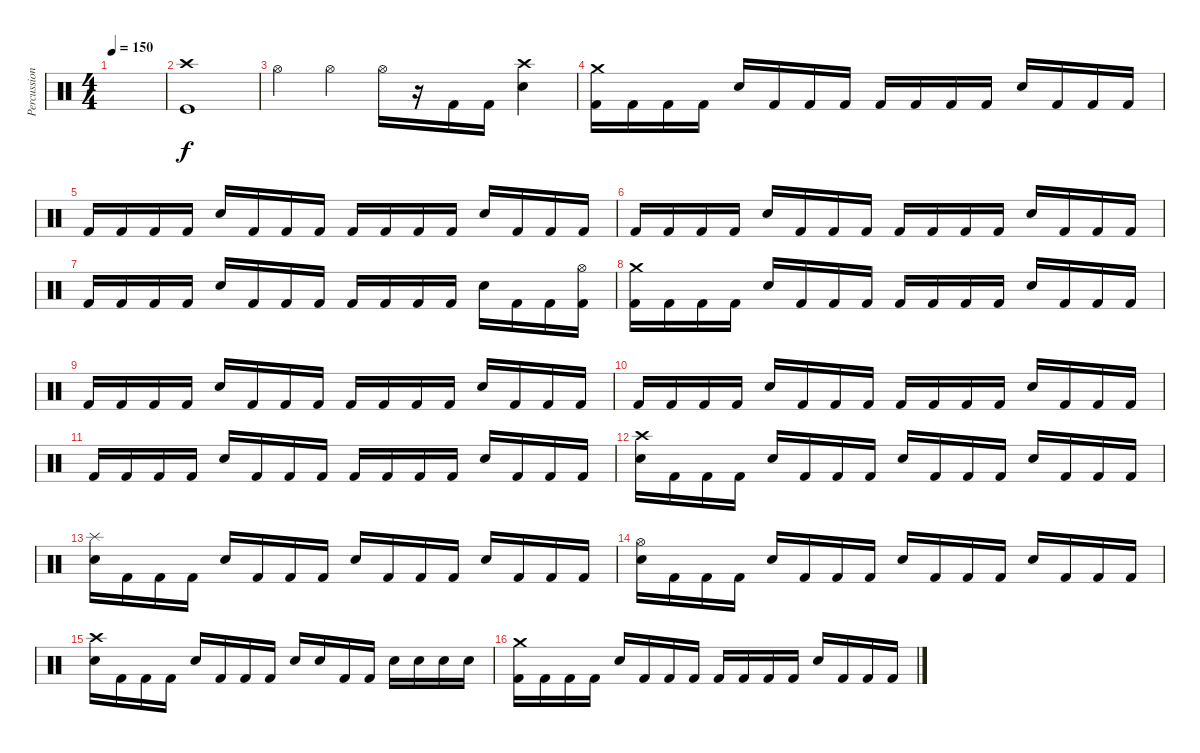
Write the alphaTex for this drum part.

\track ("Percussion" "Percussion") {instrument percussion}
\staff {score}
\articulation defaults
\ts (4 4)
\tempo 150
\clef neutral
\ks c
|
("Crash high (hit)" "Kick (hit)").1 |
"Hi-Hat (open)".4 "Hi-Hat (open)".4 "Hi-Hat (open)".16 r.16 "Kick (hit) 2".16 "Kick (hit) 2".16 ("Crash high (hit)" "Snare (hit) 2").4 |
("Crash medium (hit)" "Kick (hit) 2").16 "Kick (hit) 2".16 "Kick (hit) 2".16 "Kick (hit) 2".16 "Snare (hit) 2".16 "Kick (hit) 2".16 "Kick (hit) 2".16 "Kick (hit) 2".16 "Kick (hit) 2".16 "Kick (hit) 2".16 "Kick (hit) 2".16 "Kick (hit) 2".16 "Snare (hit) 2".16 "Kick (hit) 2".16 "Kick (hit) 2".16 "Kick (hit) 2".16 |
"Kick (hit) 2".16 "Kick (hit) 2".16 "Kick (hit) 2".16 "Kick (hit) 2".16 "Snare (hit) 2".16 "Kick (hit) 2".16 "Kick (hit) 2".16 "Kick (hit) 2".16 "Kick (hit) 2".16 "Kick (hit) 2".16 "Kick (hit) 2".16 "Kick (hit) 2".16 "Snare (hit) 2".16 "Kick (hit) 2".16 "Kick (hit) 2".16 "Kick (hit) 2".16 |
"Kick (hit) 2".16 "Kick (hit) 2".16 "Kick (hit) 2".16 "Kick (hit) 2".16 "Snare (hit) 2".16 "Kick (hit) 2".16 "Kick (hit) 2".16 "Kick (hit) 2".16 "Kick (hit) 2".16 "Kick (hit) 2".16 "Kick (hit) 2".16 "Kick (hit) 2".16 "Snare (hit) 2".16 "Kick (hit) 2".16 "Kick (hit) 2".16 "Kick (hit) 2".16 |
"Kick (hit) 2".16 "Kick (hit) 2".16 "Kick (hit) 2".16 "Kick (hit) 2".16 "Snare (hit) 2".16 "Kick (hit) 2".16 "Kick (hit) 2".16 "Kick (hit) 2".16 "Kick (hit) 2".16 "Kick (hit) 2".16 "Kick (hit) 2".16 "Kick (hit) 2".16 "Snare (hit) 2".16 "Kick (hit) 2".16 "Kick (hit) 2".16 ("Hi-Hat (open)" "Kick (hit) 2").16 |
("Crash medium (hit)" "Kick (hit) 2").16 "Kick (hit) 2".16 "Kick (hit) 2".16 "Kick (hit) 2".16 "Snare (hit) 2".16 "Kick (hit) 2".16 "Kick (hit) 2".16 "Kick (hit) 2".16 "Kick (hit) 2".16 "Kick (hit) 2".16 "Kick (hit) 2".16 "Kick (hit) 2".16 "Snare (hit) 2".16 "Kick (hit) 2".16 "Kick (hit) 2".16 "Kick (hit) 2".16 |
"Kick (hit) 2".16 "Kick (hit) 2".16 "Kick (hit) 2".16 "Kick (hit) 2".16 "Snare (hit) 2".16 "Kick (hit) 2".16 "Kick (hit) 2".16 "Kick (hit) 2".16 "Kick (hit) 2".16 "Kick (hit) 2".16 "Kick (hit) 2".16 "Kick (hit) 2".16 "Snare (hit) 2".16 "Kick (hit) 2".16 "Kick (hit) 2".16 "Kick (hit) 2".16 |
"Kick (hit) 2".16 "Kick (hit) 2".16 "Kick (hit) 2".16 "Kick (hit) 2".16 "Snare (hit) 2".16 "Kick (hit) 2".16 "Kick (hit) 2".16 "Kick (hit) 2".16 "Kick (hit) 2".16 "Kick (hit) 2".16 "Kick (hit) 2".16 "Kick (hit) 2".16 "Snare (hit) 2".16 "Kick (hit) 2".16 "Kick (hit) 2".16 "Kick (hit) 2".16 |
"Kick (hit) 2".16 "Kick (hit) 2".16 "Kick (hit) 2".16 "Kick (hit) 2".16 "Snare (hit) 2".16 "Kick (hit) 2".16 "Kick (hit) 2".16 "Kick (hit) 2".16 "Kick (hit) 2".16 "Kick (hit) 2".16 "Kick (hit) 2".16 "Kick (hit) 2".16 "Snare (hit) 2".16 "Kick (hit) 2".16 "Kick (hit) 2".16 "Kick (hit) 2".16 |
("Crash high (hit)" "Snare (hit) 2").16 "Kick (hit) 2".16 "Kick (hit) 2".16 "Kick (hit) 2".16 "Snare (hit) 2".16 "Kick (hit) 2".16 "Kick (hit) 2".16 "Kick (hit) 2".16 "Snare (hit) 2".16 "Kick (hit) 2".16 "Kick (hit) 2".16 "Kick (hit) 2".16 "Snare (hit) 2".16 "Kick (hit) 2".16 "Kick (hit) 2".16 "Kick (hit) 2".16 |
("Splash (hit)" "Snare (hit) 2").16 "Kick (hit) 2".16 "Kick (hit) 2".16 "Kick (hit) 2".16 "Snare (hit) 2".16 "Kick (hit) 2".16 "Kick (hit) 2".16 "Kick (hit) 2".16 "Snare (hit) 2".16 "Kick (hit) 2".16 "Kick (hit) 2".16 "Kick (hit) 2".16 "Snare (hit) 2".16 "Kick (hit) 2".16 "Kick (hit) 2".16 "Kick (hit) 2".16 |
("Hi-Hat (open)" "Snare (hit) 2").16 "Kick (hit) 2".16 "Kick (hit) 2".16 "Kick (hit) 2".16 "Snare (hit) 2".16 "Kick (hit) 2".16 "Kick (hit) 2".16 "Kick (hit) 2".16 "Snare (hit) 2".16 "Kick (hit) 2".16 "Kick (hit) 2".16 "Kick (hit) 2".16 "Snare (hit) 2".16 "Kick (hit) 2".16 "Kick (hit) 2".16 "Kick (hit) 2".16 |
("Crash high (hit)" "Snare (hit) 2").16 "Kick (hit) 2".16 "Kick (hit) 2".16 "Kick (hit) 2".16 "Snare (hit) 2".16 "Kick (hit) 2".16 "Kick (hit) 2".16 "Kick (hit) 2".16 "Snare (hit) 2".16 "Snare (hit) 2".16 "Kick (hit) 2".16 "Kick (hit) 2".16 "Snare (hit) 2".16 "Snare (hit) 2".16 "Snare (hit) 2".16 "Snare (hit) 2".16 |
("Crash medium (hit)" "Kick (hit) 2").16 "Kick (hit) 2".16 "Kick (hit) 2".16 "Kick (hit) 2".16 "Snare (hit) 2".16 "Kick (hit) 2".16 "Kick (hit) 2".16 "Kick (hit) 2".16 "Kick (hit) 2".16 "Kick (hit) 2".16 "Kick (hit) 2".16 "Kick (hit) 2".16 "Snare (hit) 2".16 "Kick (hit) 2".16 "Kick (hit) 2".16 "Kick (hit) 2".16
